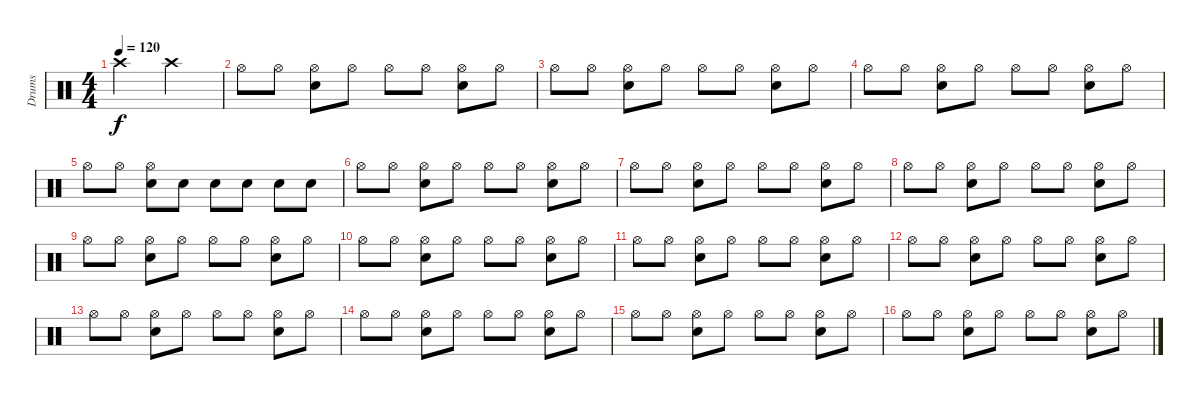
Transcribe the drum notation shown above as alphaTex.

\track ("Drums" "Drums") {instrument percussion}
\staff {score}
\articulation defaults
\ts (4 4)
\tempo 120
\clef neutral
\ks c "Crash high (hit)".2{dy f} "Crash high (hit)".2
|
"Hi-Hat (open)".8 "Hi-Hat (open)".8 ("Hi-Hat (open)" "Snare (hit) 2").8 "Hi-Hat (open)".8 "Hi-Hat (open)".8 "Hi-Hat (open)".8 ("Hi-Hat (open)" "Snare (hit) 2").8 "Hi-Hat (open)".8 |
"Hi-Hat (open)".8 "Hi-Hat (open)".8 ("Hi-Hat (open)" "Snare (hit) 2").8 "Hi-Hat (open)".8 "Hi-Hat (open)".8 "Hi-Hat (open)".8 ("Hi-Hat (open)" "Snare (hit) 2").8 "Hi-Hat (open)".8 |
"Hi-Hat (open)".8 "Hi-Hat (open)".8 ("Hi-Hat (open)" "Snare (hit) 2").8 "Hi-Hat (open)".8 "Hi-Hat (open)".8 "Hi-Hat (open)".8 ("Hi-Hat (open)" "Snare (hit) 2").8 "Hi-Hat (open)".8 |
"Hi-Hat (open)".8 "Hi-Hat (open)".8 ("Hi-Hat (open)" "Snare (hit) 2").8 "Snare (hit) 2".8 "Snare (hit) 2".8 "Snare (hit) 2".8 "Snare (hit) 2".8 "Snare (hit) 2".8 |
"Hi-Hat (open)".8 "Hi-Hat (open)".8 ("Hi-Hat (open)" "Snare (hit) 2").8 "Hi-Hat (open)".8 "Hi-Hat (open)".8 "Hi-Hat (open)".8 ("Hi-Hat (open)" "Snare (hit) 2").8 "Hi-Hat (open)".8 |
"Hi-Hat (open)".8 "Hi-Hat (open)".8 ("Hi-Hat (open)" "Snare (hit) 2").8 "Hi-Hat (open)".8 "Hi-Hat (open)".8 "Hi-Hat (open)".8 ("Hi-Hat (open)" "Snare (hit) 2").8 "Hi-Hat (open)".8 |
"Hi-Hat (open)".8 "Hi-Hat (open)".8 ("Hi-Hat (open)" "Snare (hit) 2").8 "Hi-Hat (open)".8 "Hi-Hat (open)".8 "Hi-Hat (open)".8 ("Hi-Hat (open)" "Snare (hit) 2").8 "Hi-Hat (open)".8 |
"Hi-Hat (open)".8 "Hi-Hat (open)".8 ("Hi-Hat (open)" "Snare (hit) 2").8 "Hi-Hat (open)".8 "Hi-Hat (open)".8 "Hi-Hat (open)".8 ("Hi-Hat (open)" "Snare (hit) 2").8 "Hi-Hat (open)".8 |
"Hi-Hat (open)".8 "Hi-Hat (open)".8 ("Hi-Hat (open)" "Snare (hit) 2").8 "Hi-Hat (open)".8 "Hi-Hat (open)".8 "Hi-Hat (open)".8 ("Hi-Hat (open)" "Snare (hit) 2").8 "Hi-Hat (open)".8 |
"Hi-Hat (open)".8 "Hi-Hat (open)".8 ("Hi-Hat (open)" "Snare (hit) 2").8 "Hi-Hat (open)".8 "Hi-Hat (open)".8 "Hi-Hat (open)".8 ("Hi-Hat (open)" "Snare (hit) 2").8 "Hi-Hat (open)".8 |
"Hi-Hat (open)".8 "Hi-Hat (open)".8 ("Hi-Hat (open)" "Snare (hit) 2").8 "Hi-Hat (open)".8 "Hi-Hat (open)".8 "Hi-Hat (open)".8 ("Hi-Hat (open)" "Snare (hit) 2").8 "Hi-Hat (open)".8 |
"Hi-Hat (open)".8 "Hi-Hat (open)".8 ("Hi-Hat (open)" "Snare (hit) 2").8 "Hi-Hat (open)".8 "Hi-Hat (open)".8 "Hi-Hat (open)".8 ("Hi-Hat (open)" "Snare (hit) 2").8 "Hi-Hat (open)".8 |
"Hi-Hat (open)".8 "Hi-Hat (open)".8 ("Hi-Hat (open)" "Snare (hit) 2").8 "Hi-Hat (open)".8 "Hi-Hat (open)".8 "Hi-Hat (open)".8 ("Hi-Hat (open)" "Snare (hit) 2").8 "Hi-Hat (open)".8 |
"Hi-Hat (open)".8 "Hi-Hat (open)".8 ("Hi-Hat (open)" "Snare (hit) 2").8 "Hi-Hat (open)".8 "Hi-Hat (open)".8 "Hi-Hat (open)".8 ("Hi-Hat (open)" "Snare (hit) 2").8 "Hi-Hat (open)".8 |
"Hi-Hat (open)".8 "Hi-Hat (open)".8 ("Hi-Hat (open)" "Snare (hit) 2").8 "Hi-Hat (open)".8 "Hi-Hat (open)".8 "Hi-Hat (open)".8 ("Hi-Hat (open)" "Snare (hit) 2").8 "Hi-Hat (open)".8
